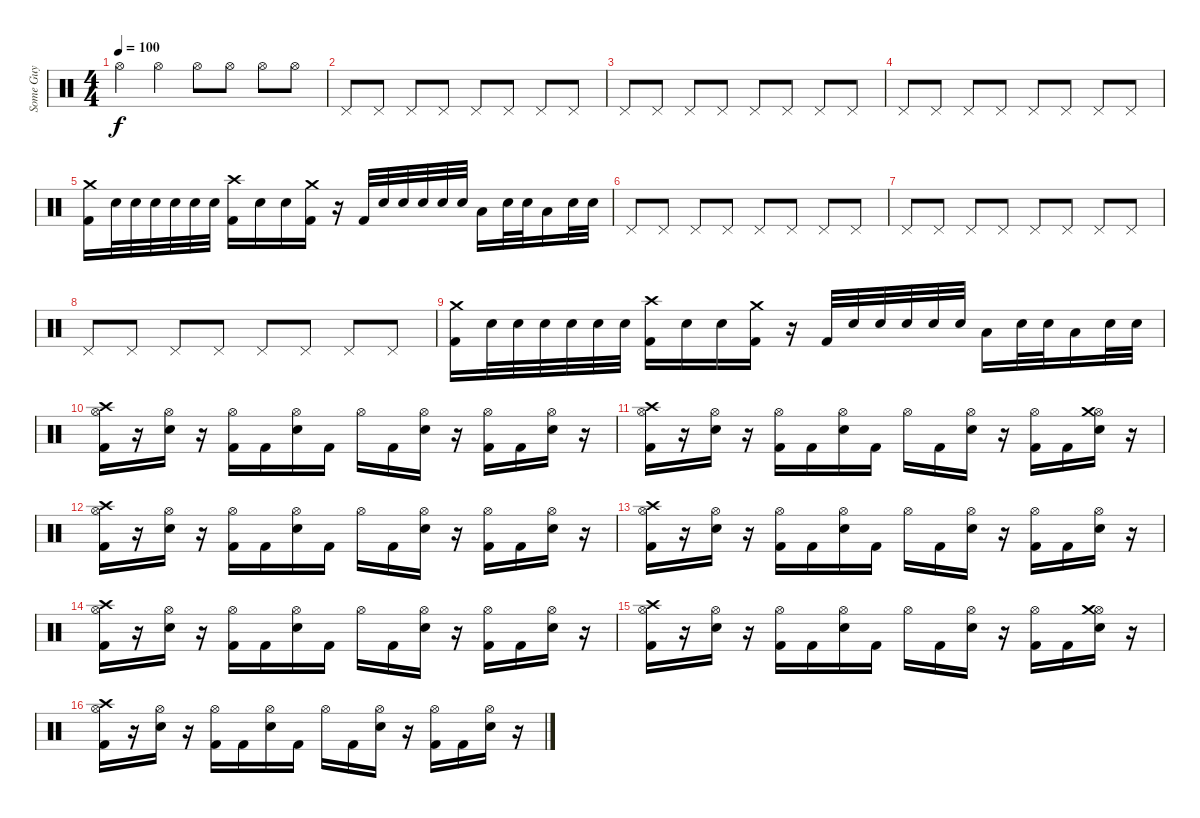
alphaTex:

\track ("Some Guy" "Some Guy") {instrument percussion}
\staff {score}
\articulation defaults
\ts (4 4)
\tempo 100
\clef neutral
\ks c "Hi-Hat (open)".4{dy f} "Hi-Hat (open)".4 "Hi-Hat (open)".8 "Hi-Hat (open)".8 "Hi-Hat (open)".8 "Hi-Hat (open)".8
|
"Pedal Hi-Hat (hit)".8 "Pedal Hi-Hat (hit)".8 "Pedal Hi-Hat (hit)".8 "Pedal Hi-Hat (hit)".8 "Pedal Hi-Hat (hit)".8 "Pedal Hi-Hat (hit)".8 "Pedal Hi-Hat (hit)".8 "Pedal Hi-Hat (hit)".8 |
"Pedal Hi-Hat (hit)".8 "Pedal Hi-Hat (hit)".8 "Pedal Hi-Hat (hit)".8 "Pedal Hi-Hat (hit)".8 "Pedal Hi-Hat (hit)".8 "Pedal Hi-Hat (hit)".8 "Pedal Hi-Hat (hit)".8 "Pedal Hi-Hat (hit)".8 |
"Pedal Hi-Hat (hit)".8 "Pedal Hi-Hat (hit)".8 "Pedal Hi-Hat (hit)".8 "Pedal Hi-Hat (hit)".8 "Pedal Hi-Hat (hit)".8 "Pedal Hi-Hat (hit)".8 "Pedal Hi-Hat (hit)".8 "Pedal Hi-Hat (hit)".8 |
("Kick (hit) 2" "Crash medium (hit)").16 "Snare (hit) 2".32 "Snare (hit) 2".32 "Snare (hit) 2".32 "Snare (hit) 2".32 "Snare (hit) 2".32 "Snare (hit) 2".32 ("Kick (hit) 2" "Crash high (hit)").16 "Snare (hit) 2".16 "Snare (hit) 2".16 ("Kick (hit) 2" "Crash medium (hit)").16 r.16 "Kick (hit) 2".32 "Snare (hit) 2".32 "Snare (hit) 2".32 "Snare (hit) 2".32 "Snare (hit) 2".32 "Snare (hit) 2".32 "Low Tom (hit)".16 "Snare (hit) 2".32 "Snare (hit) 2".32 "Low Tom (hit)".16 "Snare (hit) 2".32 "Snare (hit) 2".32 |
"Pedal Hi-Hat (hit)".8 "Pedal Hi-Hat (hit)".8 "Pedal Hi-Hat (hit)".8 "Pedal Hi-Hat (hit)".8 "Pedal Hi-Hat (hit)".8 "Pedal Hi-Hat (hit)".8 "Pedal Hi-Hat (hit)".8 "Pedal Hi-Hat (hit)".8 |
"Pedal Hi-Hat (hit)".8 "Pedal Hi-Hat (hit)".8 "Pedal Hi-Hat (hit)".8 "Pedal Hi-Hat (hit)".8 "Pedal Hi-Hat (hit)".8 "Pedal Hi-Hat (hit)".8 "Pedal Hi-Hat (hit)".8 "Pedal Hi-Hat (hit)".8 |
"Pedal Hi-Hat (hit)".8 "Pedal Hi-Hat (hit)".8 "Pedal Hi-Hat (hit)".8 "Pedal Hi-Hat (hit)".8 "Pedal Hi-Hat (hit)".8 "Pedal Hi-Hat (hit)".8 "Pedal Hi-Hat (hit)".8 "Pedal Hi-Hat (hit)".8 |
("Kick (hit) 2" "Crash medium (hit)").16 "Snare (hit) 2".32 "Snare (hit) 2".32 "Snare (hit) 2".32 "Snare (hit) 2".32 "Snare (hit) 2".32 "Snare (hit) 2".32 ("Kick (hit) 2" "Crash high (hit)").16 "Snare (hit) 2".16 "Snare (hit) 2".16 ("Kick (hit) 2" "Crash medium (hit)").16 r.16 "Kick (hit) 2".32 "Snare (hit) 2".32 "Snare (hit) 2".32 "Snare (hit) 2".32 "Snare (hit) 2".32 "Snare (hit) 2".32 "Low Tom (hit)".16 "Snare (hit) 2".32 "Snare (hit) 2".32 "Low Tom (hit)".16 "Snare (hit) 2".32 "Snare (hit) 2".32 |
("Hi-Hat (open)" "Crash high (hit)" "Kick (hit) 2").16 r.16 ("Hi-Hat (open)" "Snare (hit) 2").16 r.16 ("Hi-Hat (open)" "Kick (hit) 2").16 "Kick (hit) 2".16 ("Hi-Hat (open)" "Snare (hit) 2").16 "Kick (hit) 2".16 "Hi-Hat (open)".16 "Kick (hit) 2".16 ("Hi-Hat (open)" "Snare (hit) 2").16 r.16 ("Hi-Hat (open)" "Kick (hit) 2").16 "Kick (hit) 2".16 ("Hi-Hat (open)" "Snare (hit) 2").16 r.16 |
("Hi-Hat (open)" "Crash high (hit)" "Kick (hit) 2").16 r.16 ("Hi-Hat (open)" "Snare (hit) 2").16 r.16 ("Hi-Hat (open)" "Kick (hit) 2").16 "Kick (hit) 2".16 ("Hi-Hat (open)" "Snare (hit) 2").16 "Kick (hit) 2".16 "Hi-Hat (open)".16 "Kick (hit) 2".16 ("Hi-Hat (open)" "Snare (hit) 2").16 r.16 ("Hi-Hat (open)" "Kick (hit) 2").16 "Kick (hit) 2".16 ("Hi-Hat (open)" "Crash medium (hit)" "Snare (hit) 2").16 r.16 |
("Hi-Hat (open)" "Crash high (hit)" "Kick (hit) 2").16 r.16 ("Hi-Hat (open)" "Snare (hit) 2").16 r.16 ("Hi-Hat (open)" "Kick (hit) 2").16 "Kick (hit) 2".16 ("Hi-Hat (open)" "Snare (hit) 2").16 "Kick (hit) 2".16 "Hi-Hat (open)".16 "Kick (hit) 2".16 ("Hi-Hat (open)" "Snare (hit) 2").16 r.16 ("Hi-Hat (open)" "Kick (hit) 2").16 "Kick (hit) 2".16 ("Hi-Hat (open)" "Snare (hit) 2").16 r.16 |
("Hi-Hat (open)" "Crash high (hit)" "Kick (hit) 2").16 r.16 ("Hi-Hat (open)" "Snare (hit) 2").16 r.16 ("Hi-Hat (open)" "Kick (hit) 2").16 "Kick (hit) 2".16 ("Hi-Hat (open)" "Snare (hit) 2").16 "Kick (hit) 2".16 "Hi-Hat (open)".16 "Kick (hit) 2".16 ("Hi-Hat (open)" "Snare (hit) 2").16 r.16 ("Hi-Hat (open)" "Kick (hit) 2").16 "Kick (hit) 2".16 ("Hi-Hat (open)" "Snare (hit) 2").16 r.16 |
("Hi-Hat (open)" "Crash high (hit)" "Kick (hit) 2").16 r.16 ("Hi-Hat (open)" "Snare (hit) 2").16 r.16 ("Hi-Hat (open)" "Kick (hit) 2").16 "Kick (hit) 2".16 ("Hi-Hat (open)" "Snare (hit) 2").16 "Kick (hit) 2".16 "Hi-Hat (open)".16 "Kick (hit) 2".16 ("Hi-Hat (open)" "Snare (hit) 2").16 r.16 ("Hi-Hat (open)" "Kick (hit) 2").16 "Kick (hit) 2".16 ("Hi-Hat (open)" "Snare (hit) 2").16 r.16 |
("Hi-Hat (open)" "Crash high (hit)" "Kick (hit) 2").16 r.16 ("Hi-Hat (open)" "Snare (hit) 2").16 r.16 ("Hi-Hat (open)" "Kick (hit) 2").16 "Kick (hit) 2".16 ("Hi-Hat (open)" "Snare (hit) 2").16 "Kick (hit) 2".16 "Hi-Hat (open)".16 "Kick (hit) 2".16 ("Hi-Hat (open)" "Snare (hit) 2").16 r.16 ("Hi-Hat (open)" "Kick (hit) 2").16 "Kick (hit) 2".16 ("Hi-Hat (open)" "Crash medium (hit)" "Snare (hit) 2").16 r.16 |
("Hi-Hat (open)" "Crash high (hit)" "Kick (hit) 2").16 r.16 ("Hi-Hat (open)" "Snare (hit) 2").16 r.16 ("Hi-Hat (open)" "Kick (hit) 2").16 "Kick (hit) 2".16 ("Hi-Hat (open)" "Snare (hit) 2").16 "Kick (hit) 2".16 "Hi-Hat (open)".16 "Kick (hit) 2".16 ("Hi-Hat (open)" "Snare (hit) 2").16 r.16 ("Hi-Hat (open)" "Kick (hit) 2").16 "Kick (hit) 2".16 ("Hi-Hat (open)" "Snare (hit) 2").16 r.16
